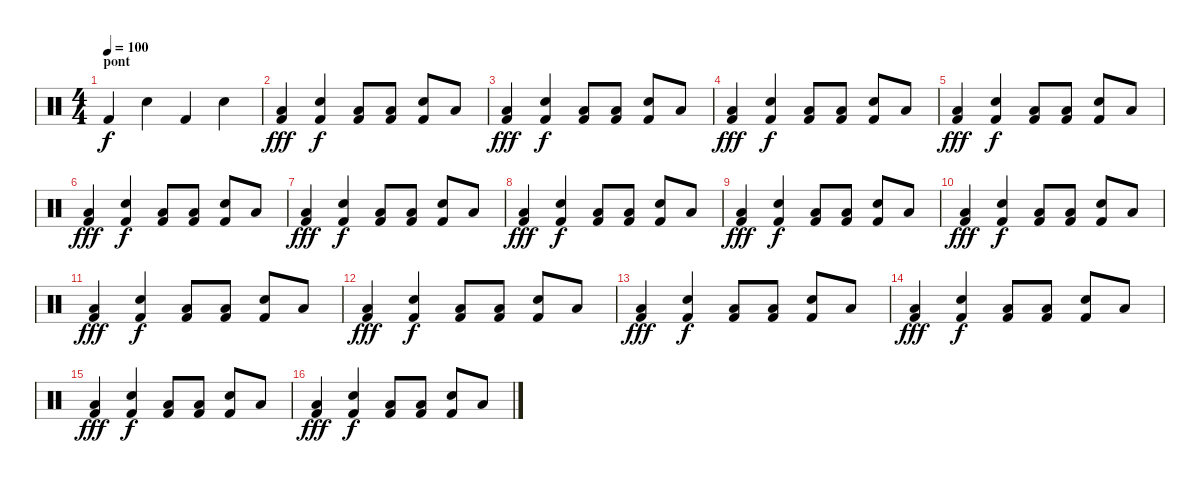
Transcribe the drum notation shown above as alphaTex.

\track "" {instrument percussion}
\staff {score}
\articulation defaults
\ts (4 4)
\section ("" "pont")
\tempo 100
\clef neutral
\ks c "Kick (hit) 2".4{dy f} "Electric Snare (hit)".4 "Kick (hit) 2".4 "Electric Snare (hit)".4
|
("Kick (hit) 2" "Low Tom (hit)").4{dy fff} ("Electric Snare (hit)" "Kick (hit) 2").4{dy f} ("Kick (hit) 2" "Low Tom (hit)").8 ("Kick (hit) 2" "Low Tom (hit)").8 ("Kick (hit) 2" "Electric Snare (hit)").8 "Low Tom (hit)".8 |
("Kick (hit) 2" "Low Tom (hit)").4{dy fff} ("Electric Snare (hit)" "Kick (hit) 2").4{dy f} ("Kick (hit) 2" "Low Tom (hit)").8 ("Kick (hit) 2" "Low Tom (hit)").8 ("Kick (hit) 2" "Electric Snare (hit)").8 "Low Tom (hit)".8 |
("Kick (hit) 2" "Low Tom (hit)").4{dy fff} ("Electric Snare (hit)" "Kick (hit) 2").4{dy f} ("Kick (hit) 2" "Low Tom (hit)").8 ("Kick (hit) 2" "Low Tom (hit)").8 ("Kick (hit) 2" "Electric Snare (hit)").8 "Low Tom (hit)".8 |
("Kick (hit) 2" "Low Tom (hit)").4{dy fff} ("Electric Snare (hit)" "Kick (hit) 2").4{dy f} ("Kick (hit) 2" "Low Tom (hit)").8 ("Kick (hit) 2" "Low Tom (hit)").8 ("Kick (hit) 2" "Electric Snare (hit)").8 "Low Tom (hit)".8 |
("Kick (hit) 2" "Low Tom (hit)").4{dy fff} ("Electric Snare (hit)" "Kick (hit) 2").4{dy f} ("Kick (hit) 2" "Low Tom (hit)").8 ("Kick (hit) 2" "Low Tom (hit)").8 ("Kick (hit) 2" "Electric Snare (hit)").8 "Low Tom (hit)".8 |
("Kick (hit) 2" "Low Tom (hit)").4{dy fff} ("Electric Snare (hit)" "Kick (hit) 2").4{dy f} ("Kick (hit) 2" "Low Tom (hit)").8 ("Kick (hit) 2" "Low Tom (hit)").8 ("Kick (hit) 2" "Electric Snare (hit)").8 "Low Tom (hit)".8 |
("Kick (hit) 2" "Low Tom (hit)").4{dy fff} ("Electric Snare (hit)" "Kick (hit) 2").4{dy f} ("Kick (hit) 2" "Low Tom (hit)").8 ("Kick (hit) 2" "Low Tom (hit)").8 ("Kick (hit) 2" "Electric Snare (hit)").8 "Low Tom (hit)".8 |
("Kick (hit) 2" "Low Tom (hit)").4{dy fff} ("Electric Snare (hit)" "Kick (hit) 2").4{dy f} ("Kick (hit) 2" "Low Tom (hit)").8 ("Kick (hit) 2" "Low Tom (hit)").8 ("Kick (hit) 2" "Electric Snare (hit)").8 "Low Tom (hit)".8 |
("Kick (hit) 2" "Low Tom (hit)").4{dy fff} ("Electric Snare (hit)" "Kick (hit) 2").4{dy f} ("Kick (hit) 2" "Low Tom (hit)").8 ("Kick (hit) 2" "Low Tom (hit)").8 ("Kick (hit) 2" "Electric Snare (hit)").8 "Low Tom (hit)".8 |
("Kick (hit) 2" "Low Tom (hit)").4{dy fff} ("Electric Snare (hit)" "Kick (hit) 2").4{dy f} ("Kick (hit) 2" "Low Tom (hit)").8 ("Kick (hit) 2" "Low Tom (hit)").8 ("Kick (hit) 2" "Electric Snare (hit)").8 "Low Tom (hit)".8 |
("Kick (hit) 2" "Low Tom (hit)").4{dy fff} ("Electric Snare (hit)" "Kick (hit) 2").4{dy f} ("Kick (hit) 2" "Low Tom (hit)").8 ("Kick (hit) 2" "Low Tom (hit)").8 ("Kick (hit) 2" "Electric Snare (hit)").8 "Low Tom (hit)".8 |
("Kick (hit) 2" "Low Tom (hit)").4{dy fff} ("Electric Snare (hit)" "Kick (hit) 2").4{dy f} ("Kick (hit) 2" "Low Tom (hit)").8 ("Kick (hit) 2" "Low Tom (hit)").8 ("Kick (hit) 2" "Electric Snare (hit)").8 "Low Tom (hit)".8 |
("Kick (hit) 2" "Low Tom (hit)").4{dy fff} ("Electric Snare (hit)" "Kick (hit) 2").4{dy f} ("Kick (hit) 2" "Low Tom (hit)").8 ("Kick (hit) 2" "Low Tom (hit)").8 ("Kick (hit) 2" "Electric Snare (hit)").8 "Low Tom (hit)".8 |
("Kick (hit) 2" "Low Tom (hit)").4{dy fff} ("Electric Snare (hit)" "Kick (hit) 2").4{dy f} ("Kick (hit) 2" "Low Tom (hit)").8 ("Kick (hit) 2" "Low Tom (hit)").8 ("Kick (hit) 2" "Electric Snare (hit)").8 "Low Tom (hit)".8 |
("Kick (hit) 2" "Low Tom (hit)").4{dy fff} ("Electric Snare (hit)" "Kick (hit) 2").4{dy f} ("Kick (hit) 2" "Low Tom (hit)").8 ("Kick (hit) 2" "Low Tom (hit)").8 ("Kick (hit) 2" "Electric Snare (hit)").8 "Low Tom (hit)".8
